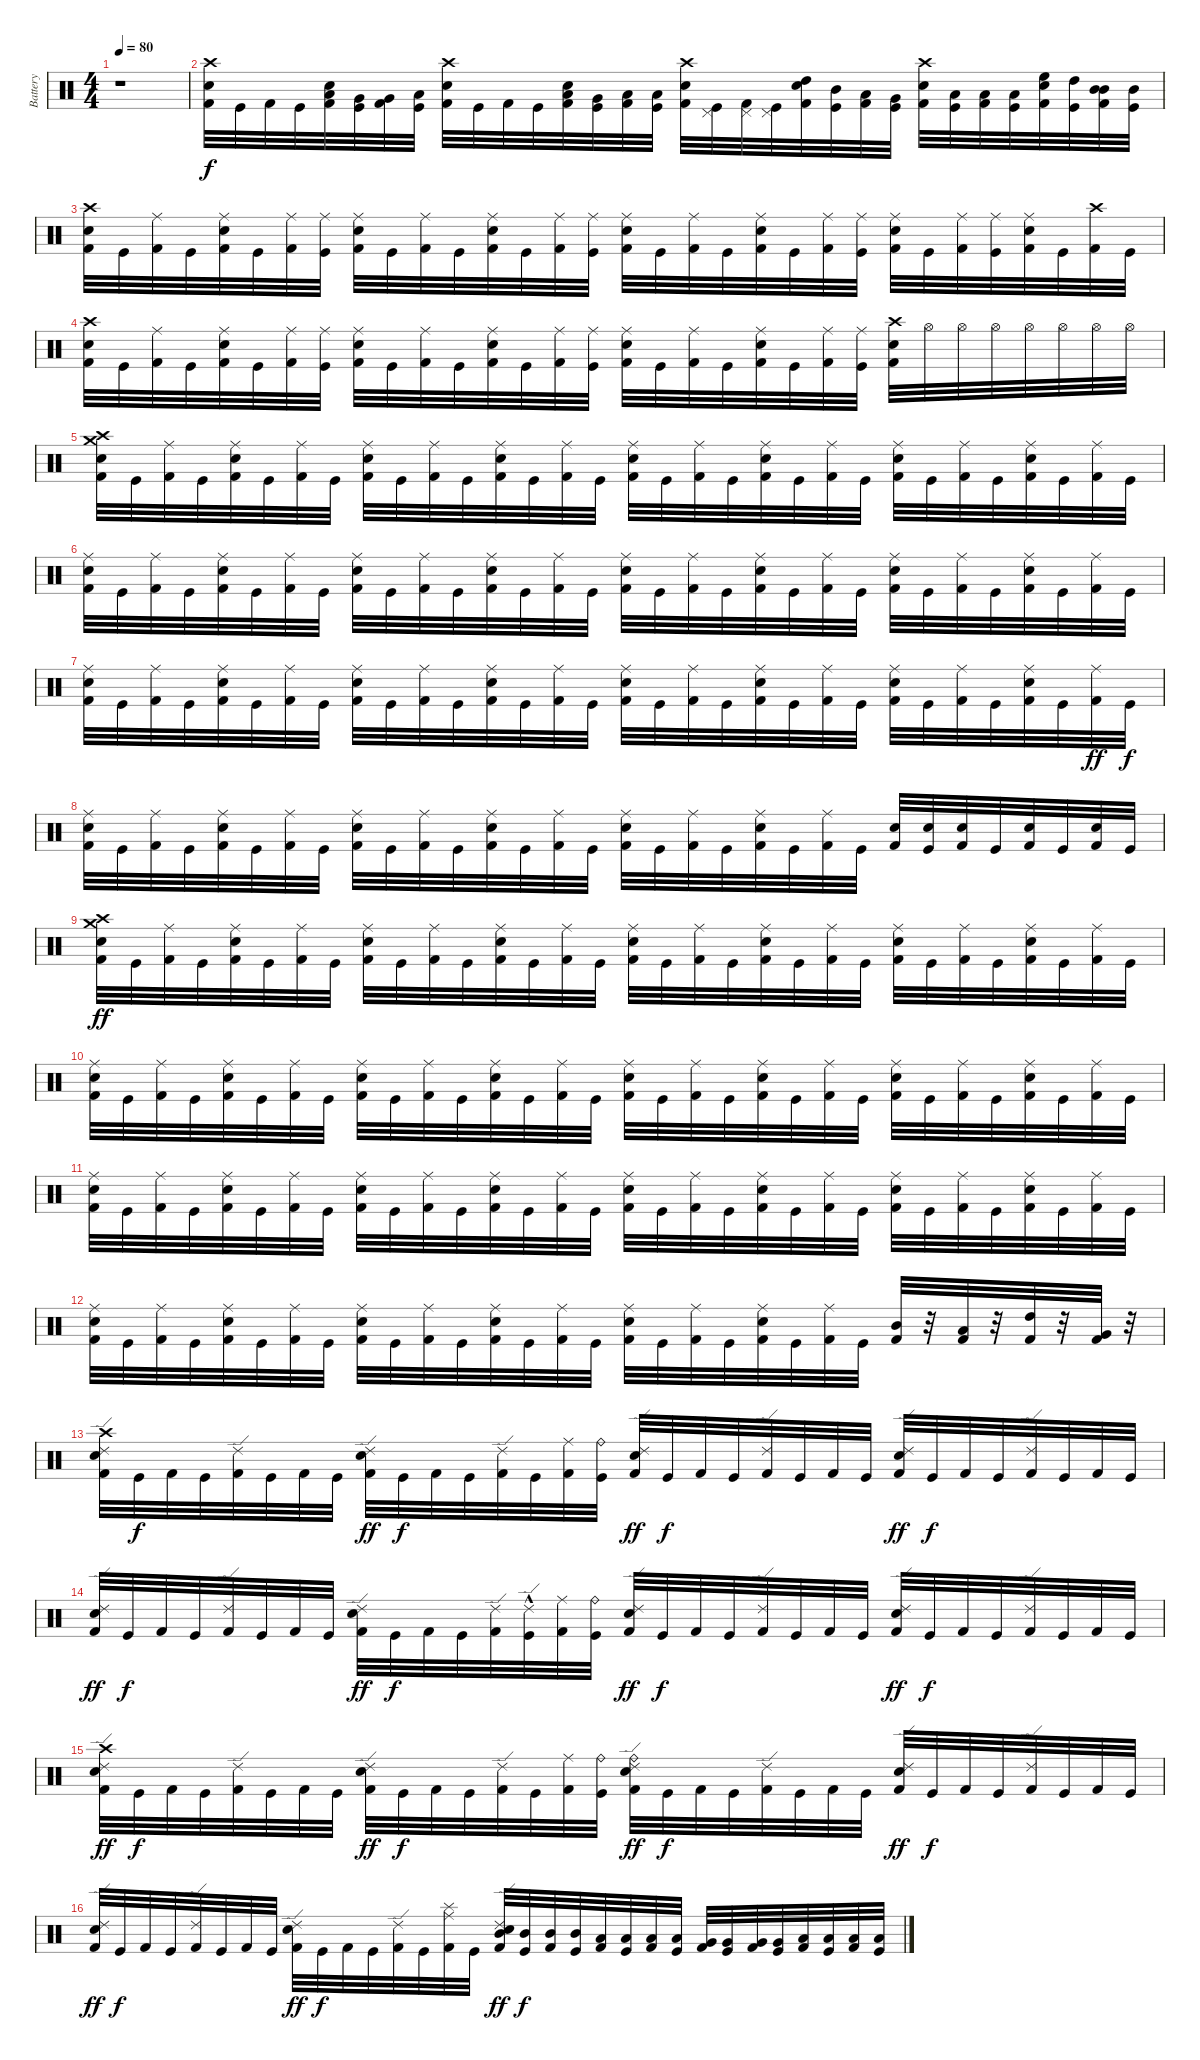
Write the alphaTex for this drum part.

\track ("Battery" "Battery") {instrument percussion}
\staff {score}
\articulation defaults
\ts (4 4)
\tempo 80
\clef neutral
\ks c
r.1{dy f} |
("Crash high (hit)" "Electric Snare (hit)" "Kick (hit) 2").32 "Kick (hit)".32 "Kick (hit) 2".32 "Kick (hit)".32 ("Low Tom (hit)" "Kick (hit) 2" "Electric Snare (hit)").32 ("Very Low Tom (hit)" "Kick (hit)").32 ("Very Low Tom (hit)" "Kick (hit) 2").32 ("Low Floor Tom (hit)" "Kick (hit)").32 ("Crash high (hit)" "Electric Snare (hit)" "Kick (hit) 2").32 "Kick (hit)".32 "Kick (hit) 2".32 "Kick (hit)".32 ("Kick (hit) 2" "Electric Snare (hit)" "Low Tom (hit)").32 ("Very Low Tom (hit)" "Kick (hit)").32 ("Low Floor Tom (hit)" "Kick (hit) 2").32 ("Kick (hit)" "Low Floor Tom (hit)").32 ("Kick (hit) 2" "Crash high (hit)" "Electric Snare (hit)").32 ("Kick (hit)" "Pedal Hi-Hat (hit)").32 ("Pedal Hi-Hat (hit)" "Kick (hit) 2").32 ("Pedal Hi-Hat (hit)" "Kick (hit)").32 ("High Tom (hit)" "Electric Snare (hit)" "Kick (hit) 2").32 ("Mid Tom (hit)" "Kick (hit)").32 ("Kick (hit) 2" "Low Tom (hit)").32 ("Kick (hit)" "Very Low Tom (hit)").32 ("Crash high (hit)" "Kick (hit) 2" "Electric Snare (hit)").32 ("Kick (hit)" "Low Tom (hit)").32 ("Kick (hit) 2" "Low Tom (hit)").32 ("Kick (hit)" "Low Tom (hit)").32 ("Electric Snare (hit)" "Kick (hit) 2" "High Floor Tom (hit)").32 ("High Tom (hit)" "Kick (hit)").32 ("Mid Tom (hit)" "Kick (hit) 2" "Mid Tom (hit)").32 ("Kick (hit)" "Mid Tom (hit)").32 |
("Electric Snare (hit)" "Crash high (hit)" "Kick (hit) 2").32 "Kick (hit)".32 ("Kick (hit) 2" "Ride (middle)").32 "Kick (hit)".32 ("Ride (middle)" "Kick (hit) 2" "Electric Snare (hit)").32 "Kick (hit)".32 ("Kick (hit) 2" "Ride (middle)").32 ("Ride (middle)" "Kick (hit)").32 ("Kick (hit) 2" "Electric Snare (hit)" "Ride (middle)").32 "Kick (hit)".32 ("Ride (middle)" "Kick (hit) 2").32 "Kick (hit)".32 ("Kick (hit) 2" "Ride (middle)" "Electric Snare (hit)").32 "Kick (hit)".32 ("Ride (middle)" "Kick (hit) 2").32 ("Kick (hit)" "Ride (middle)").32 ("Ride (middle)" "Kick (hit) 2" "Electric Snare (hit)").32 "Kick (hit)".32 ("Kick (hit) 2" "Ride (middle)").32 "Kick (hit)".32 ("Electric Snare (hit)" "Kick (hit) 2" "Ride (middle)").32 "Kick (hit)".32 ("Ride (middle)" "Kick (hit) 2").32 ("Kick (hit)" "Ride (middle)").32 ("Ride (middle)" "Electric Snare (hit)" "Kick (hit) 2").32 "Kick (hit)".32 ("Ride (middle)" "Kick (hit) 2").32 ("Kick (hit)" "Ride (middle)").32 ("Electric Snare (hit)" "Ride (middle)" "Kick (hit) 2").32 "Kick (hit)".32 ("Kick (hit) 2" "Crash high (hit)").32 "Kick (hit)".32 |
("Kick (hit) 2" "Electric Snare (hit)" "Crash high (hit)").32 "Kick (hit)".32 ("Kick (hit) 2" "Ride (middle)").32 "Kick (hit)".32 ("Electric Snare (hit)" "Kick (hit) 2" "Ride (middle)").32 "Kick (hit)".32 ("Ride (middle)" "Kick (hit) 2").32 ("Ride (middle)" "Kick (hit)").32 ("Ride (middle)" "Kick (hit) 2" "Electric Snare (hit)").32 "Kick (hit)".32 ("Ride (middle)" "Kick (hit) 2").32 "Kick (hit)".32 ("Electric Snare (hit)" "Ride (middle)" "Kick (hit) 2").32 "Kick (hit)".32 ("Kick (hit) 2" "Ride (middle)").32 ("Kick (hit)" "Ride (middle)").32 ("Electric Snare (hit)" "Kick (hit) 2" "Ride (middle)").32 "Kick (hit)".32 ("Ride (middle)" "Kick (hit) 2").32 "Kick (hit)".32 ("Ride (middle)" "Kick (hit) 2" "Electric Snare (hit)").32 "Kick (hit)".32 ("Kick (hit) 2" "Ride (middle)").32 ("Kick (hit)" "Ride (middle)").32 ("Electric Snare (hit)" "Kick (hit) 2" "Crash high (hit)").32 "Hi-Hat (open)".32 "Hi-Hat (open)".32 "Hi-Hat (open)".32 "Hi-Hat (open)".32 "Hi-Hat (open)".32 "Hi-Hat (open)".32 "Hi-Hat (open)".32 |
("Kick (hit) 2" "Electric Snare (hit)" "Crash medium (hit)" "Crash high (hit)").32 "Kick (hit)".32 ("Ride (middle)" "Kick (hit) 2").32 "Kick (hit)".32 ("Ride (middle)" "Electric Snare (hit)" "Kick (hit) 2").32 "Kick (hit)".32 ("Ride (middle)" "Kick (hit) 2").32 "Kick (hit)".32 ("Kick (hit) 2" "Electric Snare (hit)" "Ride (middle)").32 "Kick (hit)".32 ("Ride (middle)" "Kick (hit) 2").32 "Kick (hit)".32 ("Electric Snare (hit)" "Ride (middle)" "Kick (hit) 2").32 "Kick (hit)".32 ("Ride (middle)" "Kick (hit) 2").32 "Kick (hit)".32 ("Kick (hit) 2" "Electric Snare (hit)" "Ride (middle)").32 "Kick (hit)".32 ("Kick (hit) 2" "Ride (middle)").32 "Kick (hit)".32 ("Kick (hit) 2" "Electric Snare (hit)" "Ride (middle)").32 "Kick (hit)".32 ("Kick (hit) 2" "Ride (middle)").32 "Kick (hit)".32 ("Kick (hit) 2" "Electric Snare (hit)" "Ride (middle)").32 "Kick (hit)".32 ("Kick (hit) 2" "Ride (middle)").32 "Kick (hit)".32 ("Kick (hit) 2" "Electric Snare (hit)" "Ride (middle)").32 "Kick (hit)".32 ("Ride (middle)" "Kick (hit) 2").32 "Kick (hit)".32 |
("Electric Snare (hit)" "Ride (middle)" "Kick (hit) 2").32 "Kick (hit)".32 ("Kick (hit) 2" "Ride (middle)").32 "Kick (hit)".32 ("Electric Snare (hit)" "Ride (middle)" "Kick (hit) 2").32 "Kick (hit)".32 ("Kick (hit) 2" "Ride (middle)").32 "Kick (hit)".32 ("Kick (hit) 2" "Ride (middle)" "Electric Snare (hit)").32 "Kick (hit)".32 ("Kick (hit) 2" "Ride (middle)").32 "Kick (hit)".32 ("Kick (hit) 2" "Electric Snare (hit)" "Ride (middle)").32 "Kick (hit)".32 ("Ride (middle)" "Kick (hit) 2").32 "Kick (hit)".32 ("Electric Snare (hit)" "Kick (hit) 2" "Ride (middle)").32 "Kick (hit)".32 ("Kick (hit) 2" "Ride (middle)").32 "Kick (hit)".32 ("Kick (hit) 2" "Ride (middle)" "Electric Snare (hit)").32 "Kick (hit)".32 ("Kick (hit) 2" "Ride (middle)").32 "Kick (hit)".32 ("Ride (middle)" "Kick (hit) 2" "Electric Snare (hit)").32 "Kick (hit)".32 ("Kick (hit) 2" "Ride (middle)").32 "Kick (hit)".32 ("Kick (hit) 2" "Electric Snare (hit)" "Ride (middle)").32 "Kick (hit)".32 ("Kick (hit) 2" "Ride (middle)").32 "Kick (hit)".32 |
("Kick (hit) 2" "Electric Snare (hit)" "Ride (middle)").32 "Kick (hit)".32 ("Kick (hit) 2" "Ride (middle)").32 "Kick (hit)".32 ("Electric Snare (hit)" "Ride (middle)" "Kick (hit) 2").32 "Kick (hit)".32 ("Ride (middle)" "Kick (hit) 2").32 "Kick (hit)".32 ("Electric Snare (hit)" "Ride (middle)" "Kick (hit) 2").32 "Kick (hit)".32 ("Kick (hit) 2" "Ride (middle)").32 "Kick (hit)".32 ("Electric Snare (hit)" "Ride (middle)" "Kick (hit) 2").32 "Kick (hit)".32 ("Kick (hit) 2" "Ride (middle)").32 "Kick (hit)".32 ("Ride (middle)" "Electric Snare (hit)" "Kick (hit) 2").32 "Kick (hit)".32 ("Ride (middle)" "Kick (hit) 2").32 "Kick (hit)".32 ("Ride (middle)" "Kick (hit) 2" "Electric Snare (hit)").32 "Kick (hit)".32 ("Kick (hit) 2" "Ride (middle)").32 "Kick (hit)".32 ("Kick (hit) 2" "Electric Snare (hit)" "Ride (middle)").32 "Kick (hit)".32 ("Kick (hit) 2" "Ride (middle)").32 "Kick (hit)".32 ("Kick (hit) 2" "Ride (middle)" "Electric Snare (hit)").32 "Kick (hit)".32 ("Kick (hit) 2" "Ride (middle)").32{dy ff} "Kick (hit)".32{dy f} |
("Kick (hit) 2" "Ride (middle)" "Electric Snare (hit)").32 "Kick (hit)".32 ("Ride (middle)" "Kick (hit) 2").32 "Kick (hit)".32 ("Ride (middle)" "Kick (hit) 2" "Electric Snare (hit)").32 "Kick (hit)".32 ("Ride (middle)" "Kick (hit) 2").32 "Kick (hit)".32 ("Ride (middle)" "Kick (hit) 2" "Electric Snare (hit)").32 "Kick (hit)".32 ("Kick (hit) 2" "Ride (middle)").32 "Kick (hit)".32 ("Kick (hit) 2" "Electric Snare (hit)" "Ride (middle)").32 "Kick (hit)".32 ("Ride (middle)" "Kick (hit) 2").32 "Kick (hit)".32 ("Kick (hit) 2" "Ride (middle)" "Electric Snare (hit)").32 "Kick (hit)".32 ("Kick (hit) 2" "Ride (middle)").32 "Kick (hit)".32 ("Electric Snare (hit)" "Ride (middle)" "Kick (hit) 2").32 "Kick (hit)".32 ("Ride (middle)" "Kick (hit) 2").32 "Kick (hit)".32 ("Kick (hit) 2" "Electric Snare (hit)").32 ("Electric Snare (hit)" "Kick (hit)").32 ("Kick (hit) 2" "Electric Snare (hit)").32 "Kick (hit)".32 ("Electric Snare (hit)" "Kick (hit) 2").32 "Kick (hit)".32 ("Kick (hit) 2" "Electric Snare (hit)").32 "Kick (hit)".32 |
("Electric Snare (hit)" "Kick (hit) 2" "Crash medium (hit)" "Crash high (hit)").32{dy ff} "Kick (hit)".32 ("Kick (hit) 2" "Ride (middle)").32 "Kick (hit)".32 ("Electric Snare (hit)" "Ride (middle)" "Kick (hit) 2").32 "Kick (hit)".32 ("Ride (middle)" "Kick (hit) 2").32 "Kick (hit)".32 ("Ride (middle)" "Kick (hit) 2" "Electric Snare (hit)").32 "Kick (hit)".32 ("Ride (middle)" "Kick (hit) 2").32 "Kick (hit)".32 ("Kick (hit) 2" "Ride (middle)" "Electric Snare (hit)").32 "Kick (hit)".32 ("Ride (middle)" "Kick (hit) 2").32 "Kick (hit)".32 ("Kick (hit) 2" "Ride (middle)" "Electric Snare (hit)").32 "Kick (hit)".32 ("Ride (middle)" "Kick (hit) 2").32 "Kick (hit)".32 ("Kick (hit) 2" "Electric Snare (hit)" "Ride (middle)").32 "Kick (hit)".32 ("Kick (hit) 2" "Ride (middle)").32 "Kick (hit)".32 ("Kick (hit) 2" "Ride (middle)" "Electric Snare (hit)").32 "Kick (hit)".32 ("Ride (middle)" "Kick (hit) 2").32 "Kick (hit)".32 ("Ride (middle)" "Electric Snare (hit)" "Kick (hit) 2").32 "Kick (hit)".32 ("Ride (middle)" "Kick (hit) 2").32 "Kick (hit)".32 |
("Electric Snare (hit)" "Kick (hit) 2" "Ride (middle)").32 "Kick (hit)".32 ("Kick (hit) 2" "Ride (middle)").32 "Kick (hit)".32 ("Electric Snare (hit)" "Ride (middle)" "Kick (hit) 2").32 "Kick (hit)".32 ("Ride (middle)" "Kick (hit) 2").32 "Kick (hit)".32 ("Ride (middle)" "Kick (hit) 2" "Electric Snare (hit)").32 "Kick (hit)".32 ("Ride (middle)" "Kick (hit) 2").32 "Kick (hit)".32 ("Kick (hit) 2" "Ride (middle)" "Electric Snare (hit)").32 "Kick (hit)".32 ("Ride (middle)" "Kick (hit) 2").32 "Kick (hit)".32 ("Kick (hit) 2" "Ride (middle)" "Electric Snare (hit)").32 "Kick (hit)".32 ("Ride (middle)" "Kick (hit) 2").32 "Kick (hit)".32 ("Kick (hit) 2" "Electric Snare (hit)" "Ride (middle)").32 "Kick (hit)".32 ("Kick (hit) 2" "Ride (middle)").32 "Kick (hit)".32 ("Kick (hit) 2" "Ride (middle)" "Electric Snare (hit)").32 "Kick (hit)".32 ("Ride (middle)" "Kick (hit) 2").32 "Kick (hit)".32 ("Ride (middle)" "Electric Snare (hit)" "Kick (hit) 2").32 "Kick (hit)".32 ("Ride (middle)" "Kick (hit) 2").32 "Kick (hit)".32 |
("Electric Snare (hit)" "Kick (hit) 2" "Ride (middle)").32 "Kick (hit)".32 ("Kick (hit) 2" "Ride (middle)").32 "Kick (hit)".32 ("Electric Snare (hit)" "Ride (middle)" "Kick (hit) 2").32 "Kick (hit)".32 ("Ride (middle)" "Kick (hit) 2").32 "Kick (hit)".32 ("Ride (middle)" "Kick (hit) 2" "Electric Snare (hit)").32 "Kick (hit)".32 ("Ride (middle)" "Kick (hit) 2").32 "Kick (hit)".32 ("Kick (hit) 2" "Ride (middle)" "Electric Snare (hit)").32 "Kick (hit)".32 ("Ride (middle)" "Kick (hit) 2").32 "Kick (hit)".32 ("Kick (hit) 2" "Ride (middle)" "Electric Snare (hit)").32 "Kick (hit)".32 ("Ride (middle)" "Kick (hit) 2").32 "Kick (hit)".32 ("Kick (hit) 2" "Electric Snare (hit)" "Ride (middle)").32 "Kick (hit)".32 ("Kick (hit) 2" "Ride (middle)").32 "Kick (hit)".32 ("Kick (hit) 2" "Ride (middle)" "Electric Snare (hit)").32 "Kick (hit)".32 ("Ride (middle)" "Kick (hit) 2").32 "Kick (hit)".32 ("Ride (middle)" "Electric Snare (hit)" "Kick (hit) 2").32 "Kick (hit)".32 ("Ride (middle)" "Kick (hit) 2").32 "Kick (hit)".32 |
("Ride (middle)" "Electric Snare (hit)" "Kick (hit) 2").32 "Kick (hit)".32 ("Kick (hit) 2" "Ride (middle)").32 "Kick (hit)".32 ("Ride (middle)" "Electric Snare (hit)" "Kick (hit) 2").32 "Kick (hit)".32 ("Kick (hit) 2" "Ride (middle)").32 "Kick (hit)".32 ("Ride (middle)" "Kick (hit) 2" "Electric Snare (hit)").32 "Kick (hit)".32 ("Kick (hit) 2" "Ride (middle)").32 "Kick (hit)".32 ("Electric Snare (hit)" "Kick (hit) 2" "Ride (middle)").32 "Kick (hit)".32 ("Ride (middle)" "Kick (hit) 2").32 "Kick (hit)".32 ("Electric Snare (hit)" "Kick (hit) 2" "Ride (middle)").32 "Kick (hit)".32 ("Ride (middle)" "Kick (hit) 2").32 "Kick (hit)".32 ("Ride (middle)" "Kick (hit) 2" "Electric Snare (hit)").32 "Kick (hit)".32 ("Kick (hit) 2" "Ride (middle)").32 "Kick (hit)".32 ("Mid Tom (hit)" "Kick (hit) 2").32 r.32 ("Kick (hit) 2" "Low Tom (hit)").32 r.32 ("High Tom (hit)" "Kick (hit) 2").32 r.32 ("Kick (hit) 2" "Very Low Tom (hit)").32 r.32 |
("Electric Snare (hit)" "Ride (edge) 2" "Crash high (hit)" "Kick (hit) 2").32 "Kick (hit)".32{dy f} "Kick (hit) 2".32 "Kick (hit)".32 ("Kick (hit) 2" "Ride (edge) 2").32 "Kick (hit)".32 "Kick (hit) 2".32 "Kick (hit)".32 ("Ride (edge) 2" "Electric Snare (hit)" "Kick (hit) 2").32{dy ff} "Kick (hit)".32{dy f} "Kick (hit) 2".32 "Kick (hit)".32 ("Ride (edge) 2" "Kick (hit) 2").32 "Kick (hit)".32 ("Kick (hit) 2" "Ride (middle)").32 ("Ride (bell)" "Kick (hit)").32 ("Ride (edge) 2" "Kick (hit) 2" "Electric Snare (hit)").32{dy ff} "Kick (hit)".32{dy f} "Kick (hit) 2".32 "Kick (hit)".32 ("Kick (hit) 2" "Ride (edge) 2").32 "Kick (hit)".32 "Kick (hit) 2".32 "Kick (hit)".32 ("Electric Snare (hit)" "Kick (hit) 2" "Ride (edge) 2").32{dy ff} "Kick (hit)".32{dy f} "Kick (hit) 2".32 "Kick (hit)".32 ("Ride (edge) 2" "Kick (hit) 2").32 "Kick (hit)".32 "Kick (hit) 2".32 "Kick (hit)".32 |
("Electric Snare (hit)" "Kick (hit) 2" "Ride (edge) 2").32{dy ff} "Kick (hit)".32{dy f} "Kick (hit) 2".32 "Kick (hit)".32 ("Ride (edge) 2" "Kick (hit) 2").32 "Kick (hit)".32 "Kick (hit) 2".32 "Kick (hit)".32 ("Kick (hit) 2" "Electric Snare (hit)" "Ride (edge) 2").32{dy ff} "Kick (hit)".32{dy f} "Kick (hit) 2".32 "Kick (hit)".32 ("Ride (edge) 2" "Kick (hit) 2").32 ("Ride (edge) 2"{hac} "Kick (hit)").32 ("Kick (hit) 2" "Ride (middle)").32 ("Kick (hit)" "Ride (bell)").32 ("Kick (hit) 2" "Electric Snare (hit)" "Ride (edge) 2").32{dy ff} "Kick (hit)".32{dy f} "Kick (hit) 2".32 "Kick (hit)".32 ("Kick (hit) 2" "Ride (edge) 2").32 "Kick (hit)".32 "Kick (hit) 2".32 "Kick (hit)".32 ("Ride (edge) 2" "Electric Snare (hit)" "Kick (hit) 2").32{dy ff} "Kick (hit)".32{dy f} "Kick (hit) 2".32 "Kick (hit)".32 ("Ride (edge) 2" "Kick (hit) 2").32 "Kick (hit)".32 "Kick (hit) 2".32 "Kick (hit)".32 |
("Kick (hit) 2" "Electric Snare (hit)" "Ride (edge) 2" "Crash high (hit)").32{dy ff} "Kick (hit)".32{dy f} "Kick (hit) 2".32 "Kick (hit)".32 ("Kick (hit) 2" "Ride (edge) 2").32 "Kick (hit)".32 "Kick (hit) 2".32 "Kick (hit)".32 ("Kick (hit) 2" "Ride (edge) 2" "Electric Snare (hit)").32{dy ff} "Kick (hit)".32{dy f} "Kick (hit) 2".32 "Kick (hit)".32 ("Kick (hit) 2" "Ride (edge) 2").32 "Kick (hit)".32 ("Kick (hit) 2" "Ride (middle)").32 ("Kick (hit)" "Ride (bell)").32 ("Ride (bell)" "Kick (hit) 2" "Ride (edge) 2" "Electric Snare (hit)").32{dy ff} "Kick (hit)".32{dy f} "Kick (hit) 2".32 "Kick (hit)".32 ("Ride (edge) 2" "Kick (hit) 2").32 "Kick (hit)".32 "Kick (hit) 2".32 "Kick (hit)".32 ("Electric Snare (hit)" "Kick (hit) 2" "Ride (edge) 2").32{dy ff} "Kick (hit)".32{dy f} "Kick (hit) 2".32 "Kick (hit)".32 ("Kick (hit) 2" "Ride (edge) 2").32 "Kick (hit)".32 "Kick (hit) 2".32 "Kick (hit)".32 |
("Electric Snare (hit)" "Kick (hit) 2" "Ride (edge) 2").32{dy ff} "Kick (hit)".32{dy f} "Kick (hit) 2".32 "Kick (hit)".32 ("Ride (edge) 2" "Kick (hit) 2").32 "Kick (hit)".32 "Kick (hit) 2".32 "Kick (hit)".32 ("Kick (hit) 2" "Electric Snare (hit)" "Ride (edge) 2").32{dy ff} "Kick (hit)".32{dy f} "Kick (hit) 2".32 "Kick (hit)".32 ("Kick (hit) 2" "Ride (edge) 2").32 "Kick (hit)".32 ("Kick (hit) 2" "Splash (hit)" "Ride (middle)").32 "Kick (hit)".32 ("Kick (hit) 2" "Mid Tom (hit)" "Ride (edge) 2" "Electric Snare (hit)").32{dy ff} ("Kick (hit)" "Mid Tom (hit)").32{dy f} ("Mid Tom (hit)" "Kick (hit) 2").32 ("Kick (hit)" "Mid Tom (hit)").32 ("Low Tom (hit)" "Kick (hit) 2").32 ("Kick (hit)" "Low Tom (hit)").32 ("Kick (hit) 2" "Low Tom (hit)").32 ("Low Tom (hit)" "Kick (hit)").32 ("Kick (hit) 2" "Very Low Tom (hit)").32 ("Kick (hit)" "Very Low Tom (hit)").32 ("Very Low Tom (hit)" "Kick (hit) 2").32 ("Kick (hit)" "Very Low Tom (hit)").32 ("Low Floor Tom (hit)" "Kick (hit) 2").32 ("Low Floor Tom (hit)" "Kick (hit)").32 ("Low Floor Tom (hit)" "Kick (hit) 2").32 ("Kick (hit)" "Low Floor Tom (hit)").32
